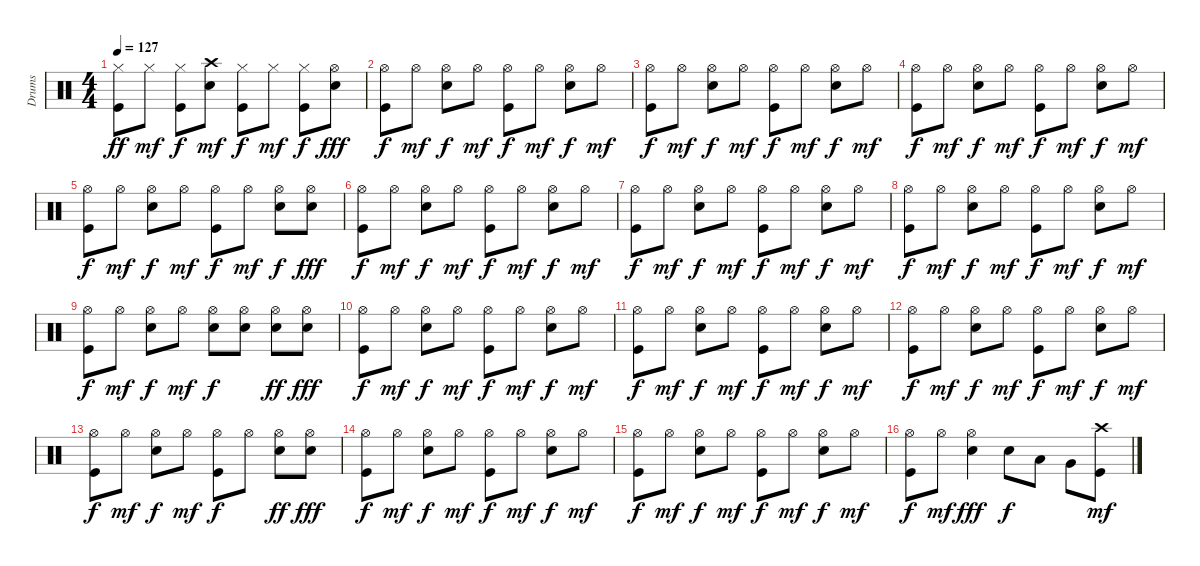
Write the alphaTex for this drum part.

\track ("Drums" "Drums") {instrument percussion}
\staff {score}
\articulation defaults
\ts (4 4)
\tempo 127
\clef neutral
\ks c
("Hi-Hat (closed)" "Kick (hit)").8{dy ff} "Hi-Hat (closed)".8{dy mf} ("Hi-Hat (closed)" "Kick (hit)").8{dy f} ("Crash high (hit)" "Snare (hit) 2").8{dy mf} ("Hi-Hat (closed)" "Kick (hit)").8{dy f} "Hi-Hat (closed)".8{dy mf} ("Hi-Hat (closed)" "Kick (hit)").8{dy f} ("Hi-Hat (open)" "Snare (hit) 2").8{dy fff} |
("Hi-Hat (open)" "Kick (hit)").8{dy f} "Hi-Hat (open)".8{dy mf} ("Hi-Hat (open)" "Snare (hit) 2").8{dy f} "Hi-Hat (open)".8{dy mf} ("Hi-Hat (open)" "Kick (hit)").8{dy f} "Hi-Hat (open)".8{dy mf} ("Hi-Hat (open)" "Snare (hit) 2").8{dy f} "Hi-Hat (open)".8{dy mf} |
("Hi-Hat (open)" "Kick (hit)").8{dy f} "Hi-Hat (open)".8{dy mf} ("Hi-Hat (open)" "Snare (hit) 2").8{dy f} "Hi-Hat (open)".8{dy mf} ("Hi-Hat (open)" "Kick (hit)").8{dy f} "Hi-Hat (open)".8{dy mf} ("Hi-Hat (open)" "Snare (hit) 2").8{dy f} "Hi-Hat (open)".8{dy mf} |
("Hi-Hat (open)" "Kick (hit)").8{dy f} "Hi-Hat (open)".8{dy mf} ("Hi-Hat (open)" "Snare (hit) 2").8{dy f} "Hi-Hat (open)".8{dy mf} ("Hi-Hat (open)" "Kick (hit)").8{dy f} "Hi-Hat (open)".8{dy mf} ("Hi-Hat (open)" "Snare (hit) 2").8{dy f} "Hi-Hat (open)".8{dy mf} |
("Hi-Hat (open)" "Kick (hit)").8{dy f} "Hi-Hat (open)".8{dy mf} ("Hi-Hat (open)" "Snare (hit) 2").8{dy f} "Hi-Hat (open)".8{dy mf} ("Hi-Hat (open)" "Kick (hit)").8{dy f} "Hi-Hat (open)".8{dy mf} ("Hi-Hat (open)" "Snare (hit) 2").8{dy f} ("Hi-Hat (open)" "Snare (hit) 2").8{dy fff} |
("Hi-Hat (open)" "Kick (hit)").8{dy f} "Hi-Hat (open)".8{dy mf} ("Hi-Hat (open)" "Snare (hit) 2").8{dy f} "Hi-Hat (open)".8{dy mf} ("Hi-Hat (open)" "Kick (hit)").8{dy f} "Hi-Hat (open)".8{dy mf} ("Hi-Hat (open)" "Snare (hit) 2").8{dy f} "Hi-Hat (open)".8{dy mf} |
("Hi-Hat (open)" "Kick (hit)").8{dy f} "Hi-Hat (open)".8{dy mf} ("Hi-Hat (open)" "Snare (hit) 2").8{dy f} "Hi-Hat (open)".8{dy mf} ("Hi-Hat (open)" "Kick (hit)").8{dy f} "Hi-Hat (open)".8{dy mf} ("Hi-Hat (open)" "Snare (hit) 2").8{dy f} "Hi-Hat (open)".8{dy mf} |
("Hi-Hat (open)" "Kick (hit)").8{dy f} "Hi-Hat (open)".8{dy mf} ("Hi-Hat (open)" "Snare (hit) 2").8{dy f} "Hi-Hat (open)".8{dy mf} ("Hi-Hat (open)" "Kick (hit)").8{dy f} "Hi-Hat (open)".8{dy mf} ("Hi-Hat (open)" "Snare (hit) 2").8{dy f} "Hi-Hat (open)".8{dy mf} |
("Hi-Hat (open)" "Kick (hit)").8{dy f} "Hi-Hat (open)".8{dy mf} ("Hi-Hat (open)" "Snare (hit) 2").8{dy f} "Hi-Hat (open)".8{dy mf} ("Hi-Hat (open)" "Snare (hit) 2").8{dy f} ("Hi-Hat (open)" "Snare (hit) 2").8 ("Hi-Hat (open)" "Snare (hit) 2").8{dy ff} ("Hi-Hat (open)" "Snare (hit) 2").8{dy fff} |
("Hi-Hat (open)" "Kick (hit)").8{dy f} "Hi-Hat (open)".8{dy mf} ("Hi-Hat (open)" "Snare (hit) 2").8{dy f} "Hi-Hat (open)".8{dy mf} ("Hi-Hat (open)" "Kick (hit)").8{dy f} "Hi-Hat (open)".8{dy mf} ("Hi-Hat (open)" "Snare (hit) 2").8{dy f} "Hi-Hat (open)".8{dy mf} |
("Hi-Hat (open)" "Kick (hit)").8{dy f} "Hi-Hat (open)".8{dy mf} ("Hi-Hat (open)" "Snare (hit) 2").8{dy f} "Hi-Hat (open)".8{dy mf} ("Hi-Hat (open)" "Kick (hit)").8{dy f} "Hi-Hat (open)".8{dy mf} ("Hi-Hat (open)" "Snare (hit) 2").8{dy f} "Hi-Hat (open)".8{dy mf} |
("Hi-Hat (open)" "Kick (hit)").8{dy f} "Hi-Hat (open)".8{dy mf} ("Hi-Hat (open)" "Snare (hit) 2").8{dy f} "Hi-Hat (open)".8{dy mf} ("Hi-Hat (open)" "Kick (hit)").8{dy f} "Hi-Hat (open)".8{dy mf} ("Hi-Hat (open)" "Snare (hit) 2").8{dy f} "Hi-Hat (open)".8{dy mf} |
("Hi-Hat (open)" "Kick (hit)").8{dy f} "Hi-Hat (open)".8{dy mf} ("Hi-Hat (open)" "Snare (hit) 2").8{dy f} "Hi-Hat (open)".8{dy mf} ("Hi-Hat (open)" "Kick (hit)").8{dy f} "Hi-Hat (open)".8 ("Hi-Hat (open)" "Snare (hit) 2").8{dy ff} ("Hi-Hat (open)" "Snare (hit) 2").8{dy fff} |
("Hi-Hat (open)" "Kick (hit)").8{dy f} "Hi-Hat (open)".8{dy mf} ("Hi-Hat (open)" "Snare (hit) 2").8{dy f} "Hi-Hat (open)".8{dy mf} ("Hi-Hat (open)" "Kick (hit)").8{dy f} "Hi-Hat (open)".8{dy mf} ("Hi-Hat (open)" "Snare (hit) 2").8{dy f} "Hi-Hat (open)".8{dy mf} |
("Hi-Hat (open)" "Kick (hit)").8{dy f} "Hi-Hat (open)".8{dy mf} ("Hi-Hat (open)" "Snare (hit) 2").8{dy f} "Hi-Hat (open)".8{dy mf} ("Hi-Hat (open)" "Kick (hit)").8{dy f} "Hi-Hat (open)".8{dy mf} ("Hi-Hat (open)" "Snare (hit) 2").8{dy f} "Hi-Hat (open)".8{dy mf} |
("Hi-Hat (open)" "Kick (hit)").8{dy f} "Hi-Hat (open)".8{dy mf} ("Hi-Hat (open)" "Snare (hit) 2").4{dy fff} "Snare (hit) 2".8{dy f} "Low Tom (hit)".8 "Very Low Tom (hit)".8 ("Crash high (hit)" "Kick (hit)").8{dy mf}
